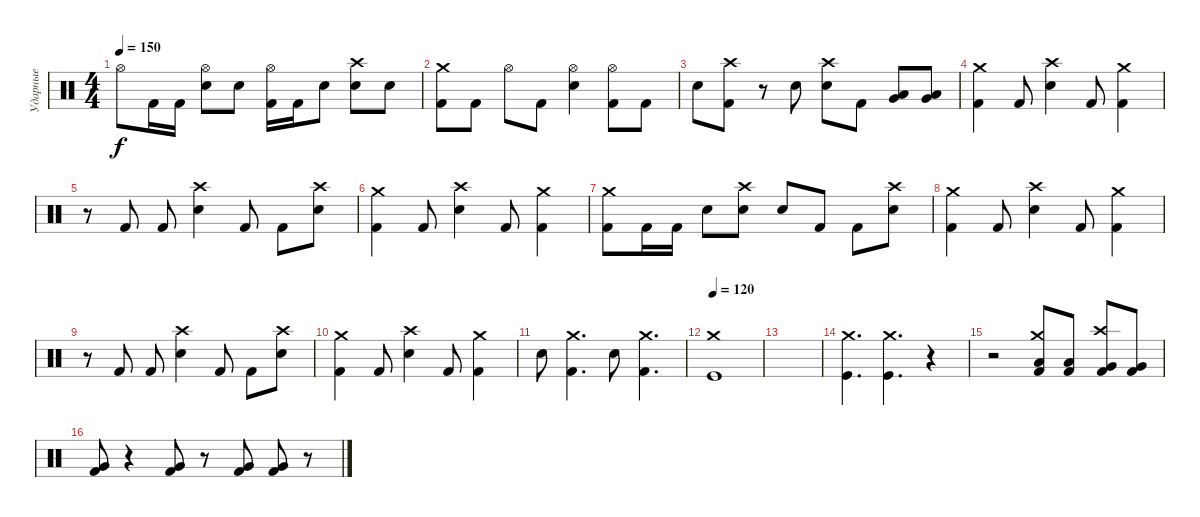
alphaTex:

\track ("Ударные" "Ударные") {instrument percussion}
\staff {score}
\articulation defaults
\ts (4 4)
\tempo 150
\clef neutral
\ks c "Hi-Hat (open)".8{dy f} "Kick (hit) 2".16 "Kick (hit) 2".16
("Hi-Hat (open)" "Snare (hit) 2").8 "Snare (hit) 2".8 ("Hi-Hat (open)" "Kick (hit) 2").16 "Kick (hit) 2".16 "Snare (hit) 2".8 ("Crash high (hit)" "Snare (hit) 2").8 "Snare (hit) 2".8 |
("Crash medium (hit)" "Kick (hit) 2").8 "Kick (hit) 2".8 "Hi-Hat (open)".8 "Kick (hit) 2".8 ("Hi-Hat (open)" "Snare (hit) 2").4 ("Hi-Hat (open)" "Kick (hit) 2").8 "Kick (hit) 2".8 |
"Snare (hit) 2".8 ("Crash high (hit)" "Kick (hit) 2").8 r.8 "Snare (hit) 2".8 ("Crash high (hit)" "Snare (hit) 2").8 "Kick (hit) 2".8 ("Low Tom (hit)" "Very Low Tom (hit)").8 ("Low Tom (hit)" "Very Low Tom (hit)").8 |
("Crash medium (hit)" "Kick (hit) 2").4 "Kick (hit) 2".8 ("Crash high (hit)" "Snare (hit) 2").4 "Kick (hit) 2".8 ("Crash medium (hit)" "Kick (hit) 2").4 |
r.8 "Kick (hit) 2".8 "Kick (hit) 2".8 ("Crash high (hit)" "Snare (hit) 2").4 "Kick (hit) 2".8 "Kick (hit) 2".8 ("Crash high (hit)" "Snare (hit) 2").8 |
("Crash medium (hit)" "Kick (hit) 2").4 "Kick (hit) 2".8 ("Crash high (hit)" "Snare (hit) 2").4 "Kick (hit) 2".8 ("Crash medium (hit)" "Kick (hit) 2").4 |
("Crash medium (hit)" "Kick (hit) 2").8 "Kick (hit) 2".16 "Kick (hit) 2".16 "Snare (hit) 2".8 ("Crash high (hit)" "Snare (hit) 2").8 "Snare (hit) 2".8 "Kick (hit) 2".8 "Kick (hit) 2".8 ("Crash high (hit)" "Snare (hit) 2").8 |
("Crash medium (hit)" "Kick (hit) 2").4 "Kick (hit) 2".8 ("Crash high (hit)" "Snare (hit) 2").4 "Kick (hit) 2".8 ("Crash medium (hit)" "Kick (hit) 2").4 |
r.8 "Kick (hit) 2".8 "Kick (hit) 2".8 ("Crash high (hit)" "Snare (hit) 2").4 "Kick (hit) 2".8 "Kick (hit) 2".8 ("Crash high (hit)" "Snare (hit) 2").8 |
("Crash medium (hit)" "Kick (hit) 2").4 "Kick (hit) 2".8 ("Crash high (hit)" "Snare (hit) 2").4 "Kick (hit) 2".8 ("Crash medium (hit)" "Kick (hit) 2").4 |
"Snare (hit) 2".8 ("Crash medium (hit)" "Kick (hit) 2").4{d} "Snare (hit) 2".8 ("Crash medium (hit)" "Kick (hit) 2").4{d} |
\tempo 120
("Crash medium (hit)" "Kick (hit)").1 |
|
("Crash medium (hit)" "Kick (hit)").4{d} ("Crash medium (hit)" "Kick (hit)").4{d} r.4 |
r.2 ("Crash medium (hit)" "Low Tom (hit)" "Kick (hit) 2").8 ("Low Tom (hit)" "Kick (hit) 2").8 ("Crash high (hit)" "Very Low Tom (hit)" "Kick (hit) 2").8 ("Very Low Tom (hit)" "Kick (hit) 2").8 |
("Very Low Tom (hit)" "Kick (hit) 2").8 r.4 ("Very Low Tom (hit)" "Kick (hit) 2").8 r.8 ("Very Low Tom (hit)" "Kick (hit) 2").8 ("Very Low Tom (hit)" "Kick (hit) 2").8 r.8
